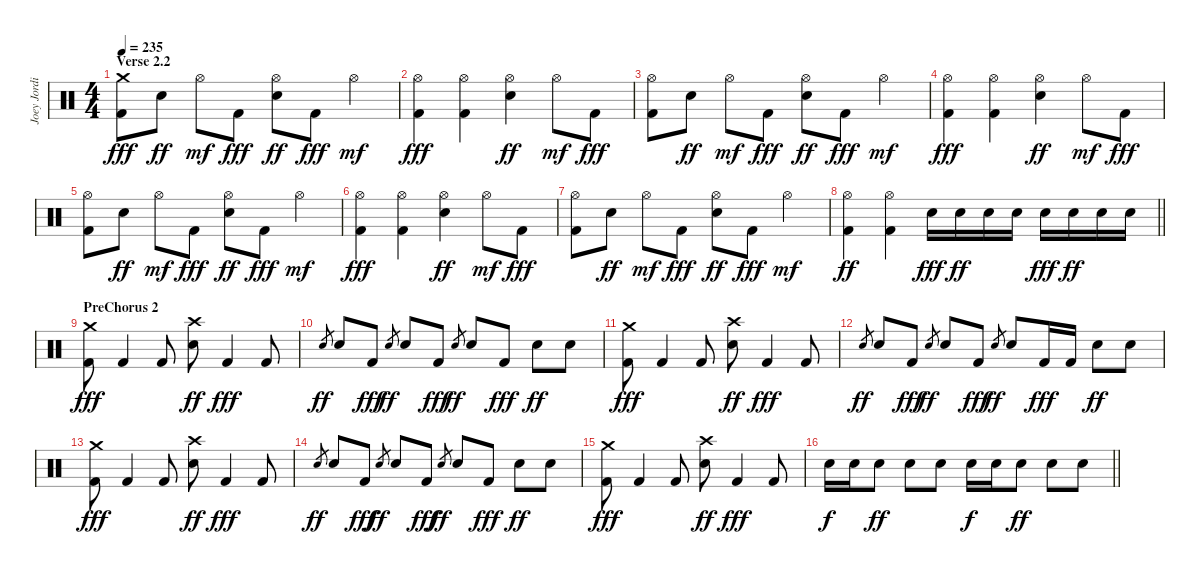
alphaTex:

\track ("Joey Jordison" "Joey Jordi") {instrument percussion}
\staff {score}
\articulation defaults
\ts (4 4)
\section ("" "Verse 2.2")
\tempo 235
\clef neutral
\ks c
("Crash medium (hit)" "Kick (hit) 2").8{dy fff} "Electric Snare (hit)".8{dy ff} "Hi-Hat (open)".8{dy mf} "Kick (hit) 2".8{dy fff} ("Hi-Hat (open)" "Electric Snare (hit)").8{dy ff} "Kick (hit) 2".8{dy fff} "Hi-Hat (open)".4{dy mf} |
("Hi-Hat (open)" "Kick (hit) 2").4{dy fff} ("Hi-Hat (open)" "Kick (hit) 2").4 ("Hi-Hat (open)" "Electric Snare (hit)").4{dy ff} "Hi-Hat (open)".8{dy mf} "Kick (hit) 2".8{dy fff} |
("Hi-Hat (open)" "Kick (hit) 2").8 "Electric Snare (hit)".8{dy ff} "Hi-Hat (open)".8{dy mf} "Kick (hit) 2".8{dy fff} ("Hi-Hat (open)" "Electric Snare (hit)").8{dy ff} "Kick (hit) 2".8{dy fff} "Hi-Hat (open)".4{dy mf} |
("Hi-Hat (open)" "Kick (hit) 2").4{dy fff} ("Hi-Hat (open)" "Kick (hit) 2").4 ("Hi-Hat (open)" "Electric Snare (hit)").4{dy ff} "Hi-Hat (open)".8{dy mf} "Kick (hit) 2".8{dy fff} |
("Hi-Hat (open)" "Kick (hit) 2").8 "Electric Snare (hit)".8{dy ff} "Hi-Hat (open)".8{dy mf} "Kick (hit) 2".8{dy fff} ("Hi-Hat (open)" "Electric Snare (hit)").8{dy ff} "Kick (hit) 2".8{dy fff} "Hi-Hat (open)".4{dy mf} |
("Hi-Hat (open)" "Kick (hit) 2").4{dy fff} ("Hi-Hat (open)" "Kick (hit) 2").4 ("Hi-Hat (open)" "Electric Snare (hit)").4{dy ff} "Hi-Hat (open)".8{dy mf} "Kick (hit) 2".8{dy fff} |
("Hi-Hat (open)" "Kick (hit) 2").8 "Electric Snare (hit)".8{dy ff} "Hi-Hat (open)".8{dy mf} "Kick (hit) 2".8{dy fff} ("Hi-Hat (open)" "Electric Snare (hit)").8{dy ff} "Kick (hit) 2".8{dy fff} "Hi-Hat (open)".4{dy mf} |
\barLineRight lightlight
("Hi-Hat (open)" "Kick (hit) 2").4{dy ff} ("Hi-Hat (open)" "Kick (hit) 2").4 "Electric Snare (hit)".16{dy fff} "Electric Snare (hit)".16{dy ff} "Electric Snare (hit)".16 "Electric Snare (hit)".16 "Electric Snare (hit)".16{dy fff} "Electric Snare (hit)".16{dy ff} "Electric Snare (hit)".16 "Electric Snare (hit)".16 |
\section ("" "PreChorus 2")
("Crash medium (hit)" "Kick (hit) 2").8{dy fff} "Kick (hit) 2".4 "Kick (hit) 2".8 ("Crash high (hit)" "Electric Snare (hit)").8{dy ff} "Kick (hit) 2".4{dy fff} "Kick (hit) 2".8 |
"Electric Snare (hit)".8{gr dy ff} "Electric Snare (hit)".8 "Kick (hit) 2".8{dy fff} "Electric Snare (hit)".8{gr dy ff} "Electric Snare (hit)".8 "Kick (hit) 2".8{dy fff} "Electric Snare (hit)".8{gr dy ff} "Electric Snare (hit)".8 "Kick (hit) 2".8{dy fff} "Electric Snare (hit)".8{dy ff} "Electric Snare (hit)".8 |
("Crash medium (hit)" "Kick (hit) 2").8{dy fff} "Kick (hit) 2".4 "Kick (hit) 2".8 ("Crash high (hit)" "Electric Snare (hit)").8{dy ff} "Kick (hit) 2".4{dy fff} "Kick (hit) 2".8 |
"Electric Snare (hit)".8{gr dy ff} "Electric Snare (hit)".8 "Kick (hit) 2".8{dy fff} "Electric Snare (hit)".8{gr dy ff} "Electric Snare (hit)".8 "Kick (hit) 2".8{dy fff} "Electric Snare (hit)".8{gr dy ff} "Electric Snare (hit)".8 "Kick (hit) 2".16{dy fff} "Kick (hit) 2".16 "Electric Snare (hit)".8{dy ff} "Electric Snare (hit)".8 |
("Crash medium (hit)" "Kick (hit) 2").8{dy fff} "Kick (hit) 2".4 "Kick (hit) 2".8 ("Crash high (hit)" "Electric Snare (hit)").8{dy ff} "Kick (hit) 2".4{dy fff} "Kick (hit) 2".8 |
"Electric Snare (hit)".8{gr dy ff} "Electric Snare (hit)".8 "Kick (hit) 2".8{dy fff} "Electric Snare (hit)".8{gr dy ff} "Electric Snare (hit)".8 "Kick (hit) 2".8{dy fff} "Electric Snare (hit)".8{gr dy ff} "Electric Snare (hit)".8 "Kick (hit) 2".8{dy fff} "Electric Snare (hit)".8{dy ff} "Electric Snare (hit)".8 |
("Crash medium (hit)" "Kick (hit) 2").8{dy fff} "Kick (hit) 2".4 "Kick (hit) 2".8 ("Crash high (hit)" "Electric Snare (hit)").8{dy ff} "Kick (hit) 2".4{dy fff} "Kick (hit) 2".8 |
\barLineRight lightlight "Electric Snare (hit)".16{dy f} "Electric Snare (hit)".16 "Electric Snare (hit)".8{dy ff} "Electric Snare (hit)".8 "Electric Snare (hit)".8 "Electric Snare (hit)".16{dy f} "Electric Snare (hit)".16 "Electric Snare (hit)".8{dy ff} "Electric Snare (hit)".8 "Electric Snare (hit)".8
